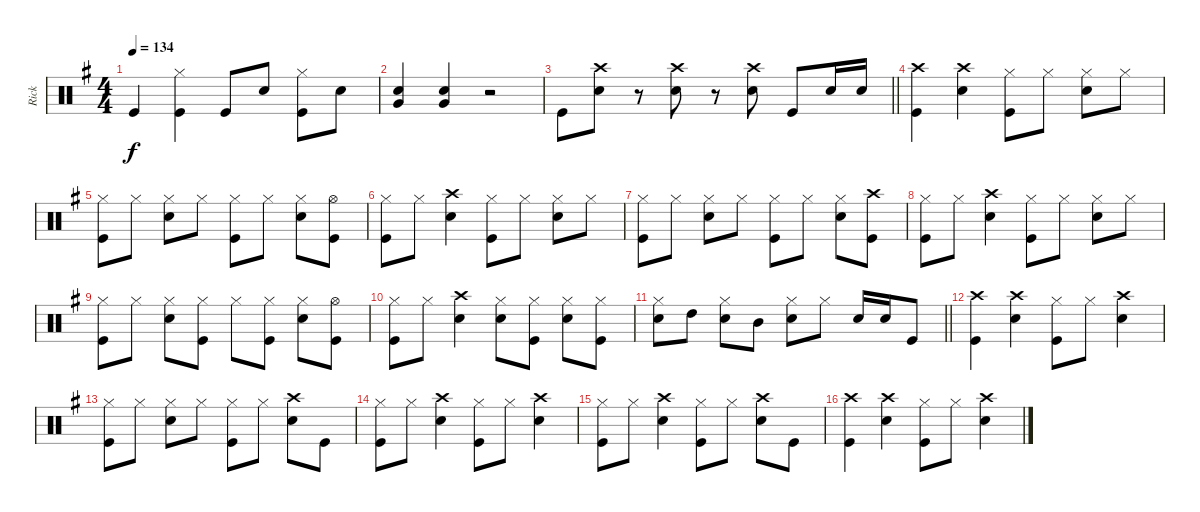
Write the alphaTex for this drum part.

\track ("Rick" "Rick") {instrument percussion}
\staff {score}
\articulation defaults
\ts (4 4)
\tempo 134
\clef neutral
\ks g "Kick (hit)".4{dy f}
("Hi-Hat (closed)" "Kick (hit)").4 "Kick (hit)".8 "Snare (hit) 2".8 ("Hi-Hat (closed)" "Kick (hit)").8 "Snare (hit) 2".8 |
("Snare (hit) 2" "Very Low Tom (hit)").4 ("Snare (hit) 2" "Very Low Tom (hit)").4 r.2 |
\barLineRight lightlight "Kick (hit)".8
("Crash high (hit)" "Snare (hit) 2").8 r.8 ("Crash high (hit)" "Snare (hit) 2").8 r.8 ("Crash high (hit)" "Snare (hit) 2").8 "Kick (hit)".8 "Snare (hit) 2".16 "Snare (hit) 2".16 |
("Crash high (hit)" "Kick (hit)").4 ("Crash high (hit)" "Snare (hit) 2").4 ("Hi-Hat (closed)" "Kick (hit)").8 "Hi-Hat (closed)".8 ("Hi-Hat (closed)" "Snare (hit) 2").8 "Hi-Hat (closed)".8 |
("Hi-Hat (closed)" "Kick (hit)").8 "Hi-Hat (closed)".8 ("Hi-Hat (closed)" "Snare (hit) 2").8 "Hi-Hat (closed)".8 ("Hi-Hat (closed)" "Kick (hit)").8 "Hi-Hat (closed)".8 ("Hi-Hat (closed)" "Snare (hit) 2").8 ("Hi-Hat (open)" "Kick (hit)").8 |
("Hi-Hat (closed)" "Kick (hit)").8 "Hi-Hat (closed)".8 ("Crash high (hit)" "Snare (hit) 2").4 ("Hi-Hat (closed)" "Kick (hit)").8 "Hi-Hat (closed)".8 ("Hi-Hat (closed)" "Snare (hit) 2").8 "Hi-Hat (closed)".8 |
("Hi-Hat (closed)" "Kick (hit)").8 "Hi-Hat (closed)".8 ("Hi-Hat (closed)" "Snare (hit) 2").8 "Hi-Hat (closed)".8 ("Hi-Hat (closed)" "Kick (hit)").8 "Hi-Hat (closed)".8 ("Hi-Hat (closed)" "Snare (hit) 2").8 ("Crash high (hit)" "Kick (hit)").8 |
("Hi-Hat (closed)" "Kick (hit)").8 "Hi-Hat (closed)".8 ("Crash high (hit)" "Snare (hit) 2").4 ("Hi-Hat (closed)" "Kick (hit)").8 "Hi-Hat (closed)".8 ("Hi-Hat (closed)" "Snare (hit) 2").8 "Hi-Hat (closed)".8 |
("Hi-Hat (closed)" "Kick (hit)").8 "Hi-Hat (closed)".8 ("Hi-Hat (closed)" "Snare (hit) 2").8 ("Hi-Hat (closed)" "Kick (hit)").8 "Hi-Hat (closed)".8 ("Hi-Hat (closed)" "Kick (hit)").8 ("Hi-Hat (closed)" "Snare (hit) 2").8 ("Hi-Hat (open)" "Kick (hit)").8 |
("Hi-Hat (closed)" "Kick (hit)").8 "Hi-Hat (closed)".8 ("Crash high (hit)" "Snare (hit) 2").4 ("Hi-Hat (closed)" "Snare (hit) 2").8 ("Hi-Hat (closed)" "Kick (hit)").8 ("Hi-Hat (closed)" "Snare (hit) 2").8 ("Hi-Hat (closed)" "Kick (hit)").8 |
\barLineRight lightlight
("Hi-Hat (closed)" "Snare (hit) 2").8 "High Tom (hit)".8 ("Hi-Hat (closed)" "Snare (hit) 2").8 "Mid Tom (hit)".8 ("Hi-Hat (closed)" "Snare (hit) 2").8 "Hi-Hat (closed)".8 "Snare (hit) 2".16 "Snare (hit) 2".16 "Kick (hit)".8 |
("Crash high (hit)" "Kick (hit)").4 ("Crash high (hit)" "Snare (hit) 2").4 ("Hi-Hat (closed)" "Kick (hit)").8 "Hi-Hat (closed)".8 ("Crash high (hit)" "Snare (hit) 2").4 |
("Hi-Hat (closed)" "Kick (hit)").8 "Hi-Hat (closed)".8 ("Hi-Hat (closed)" "Snare (hit) 2").8 "Hi-Hat (closed)".8 ("Hi-Hat (closed)" "Kick (hit)").8 "Hi-Hat (closed)".8 ("Crash high (hit)" "Snare (hit) 2").8 "Kick (hit)".8 |
("Hi-Hat (closed)" "Kick (hit)").8 "Hi-Hat (closed)".8 ("Crash high (hit)" "Snare (hit) 2").4 ("Hi-Hat (closed)" "Kick (hit)").8 "Hi-Hat (closed)".8 ("Crash high (hit)" "Snare (hit) 2").4 |
("Hi-Hat (closed)" "Kick (hit)").8 "Hi-Hat (closed)".8 ("Crash high (hit)" "Snare (hit) 2").4 ("Hi-Hat (closed)" "Kick (hit)").8 "Hi-Hat (closed)".8 ("Crash high (hit)" "Snare (hit) 2").8 "Kick (hit)".8 |
("Crash high (hit)" "Kick (hit)").4 ("Crash high (hit)" "Snare (hit) 2").4 ("Hi-Hat (closed)" "Kick (hit)").8 "Hi-Hat (closed)".8 ("Crash high (hit)" "Snare (hit) 2").4
